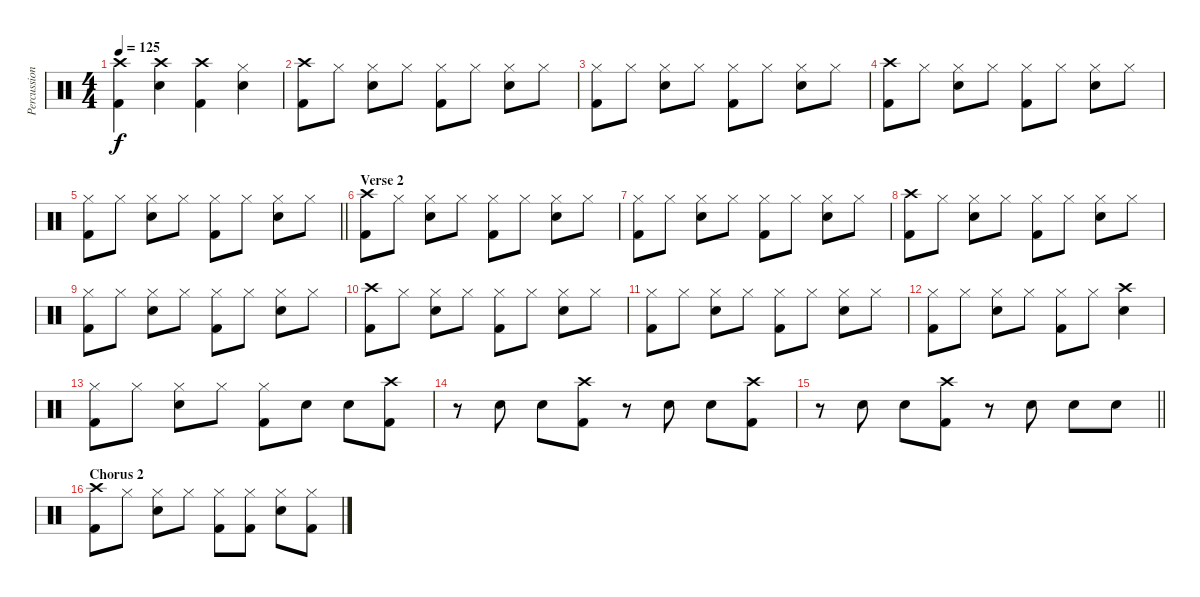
\track ("Percussions" "Percussion") {instrument percussion}
\staff {score}
\articulation defaults
\ts (4 4)
\tempo 125
\clef neutral
\ks c
("Crash high (hit)" "Kick (hit) 2").4{dy f} ("Crash high (hit)" "Snare (hit) 2").4 ("Crash high (hit)" "Kick (hit) 2").4 ("Hi-Hat (closed)" "Snare (hit) 2").4 |
("Crash high (hit)" "Kick (hit) 2").8 "Hi-Hat (closed)".8 ("Hi-Hat (closed)" "Snare (hit) 2").8 "Hi-Hat (closed)".8 ("Hi-Hat (closed)" "Kick (hit) 2").8 "Hi-Hat (closed)".8 ("Hi-Hat (closed)" "Snare (hit) 2").8 "Hi-Hat (closed)".8 |
("Hi-Hat (closed)" "Kick (hit) 2").8 "Hi-Hat (closed)".8 ("Hi-Hat (closed)" "Snare (hit) 2").8 "Hi-Hat (closed)".8 ("Hi-Hat (closed)" "Kick (hit) 2").8 "Hi-Hat (closed)".8 ("Hi-Hat (closed)" "Snare (hit) 2").8 "Hi-Hat (closed)".8 |
("Crash high (hit)" "Kick (hit) 2").8 "Hi-Hat (closed)".8 ("Hi-Hat (closed)" "Snare (hit) 2").8 "Hi-Hat (closed)".8 ("Hi-Hat (closed)" "Kick (hit) 2").8 "Hi-Hat (closed)".8 ("Hi-Hat (closed)" "Snare (hit) 2").8 "Hi-Hat (closed)".8 |
\barLineRight lightlight
("Hi-Hat (closed)" "Kick (hit) 2").8 "Hi-Hat (closed)".8 ("Hi-Hat (closed)" "Snare (hit) 2").8 "Hi-Hat (closed)".8 ("Hi-Hat (closed)" "Kick (hit) 2").8 "Hi-Hat (closed)".8 ("Hi-Hat (closed)" "Snare (hit) 2").8 "Hi-Hat (closed)".8 |
\section ("" "Verse 2")
("Crash high (hit)" "Kick (hit) 2").8 "Hi-Hat (closed)".8 ("Hi-Hat (closed)" "Snare (hit) 2").8 "Hi-Hat (closed)".8 ("Hi-Hat (closed)" "Kick (hit) 2").8 "Hi-Hat (closed)".8 ("Hi-Hat (closed)" "Snare (hit) 2").8 "Hi-Hat (closed)".8 |
("Hi-Hat (closed)" "Kick (hit) 2").8 "Hi-Hat (closed)".8 ("Hi-Hat (closed)" "Snare (hit) 2").8 "Hi-Hat (closed)".8 ("Hi-Hat (closed)" "Kick (hit) 2").8 "Hi-Hat (closed)".8 ("Hi-Hat (closed)" "Snare (hit) 2").8 "Hi-Hat (closed)".8 |
("Crash high (hit)" "Kick (hit) 2").8 "Hi-Hat (closed)".8 ("Hi-Hat (closed)" "Snare (hit) 2").8 "Hi-Hat (closed)".8 ("Hi-Hat (closed)" "Kick (hit) 2").8 "Hi-Hat (closed)".8 ("Hi-Hat (closed)" "Snare (hit) 2").8 "Hi-Hat (closed)".8 |
("Hi-Hat (closed)" "Kick (hit) 2").8 "Hi-Hat (closed)".8 ("Hi-Hat (closed)" "Snare (hit) 2").8 "Hi-Hat (closed)".8 ("Hi-Hat (closed)" "Kick (hit) 2").8 "Hi-Hat (closed)".8 ("Hi-Hat (closed)" "Snare (hit) 2").8 "Hi-Hat (closed)".8 |
("Crash high (hit)" "Kick (hit) 2").8 "Hi-Hat (closed)".8 ("Hi-Hat (closed)" "Snare (hit) 2").8 "Hi-Hat (closed)".8 ("Hi-Hat (closed)" "Kick (hit) 2").8 "Hi-Hat (closed)".8 ("Hi-Hat (closed)" "Snare (hit) 2").8 "Hi-Hat (closed)".8 |
("Hi-Hat (closed)" "Kick (hit) 2").8 "Hi-Hat (closed)".8 ("Hi-Hat (closed)" "Snare (hit) 2").8 "Hi-Hat (closed)".8 ("Hi-Hat (closed)" "Kick (hit) 2").8 "Hi-Hat (closed)".8 ("Hi-Hat (closed)" "Snare (hit) 2").8 "Hi-Hat (closed)".8 |
("Hi-Hat (closed)" "Kick (hit) 2").8 "Hi-Hat (closed)".8 ("Hi-Hat (closed)" "Snare (hit) 2").8 "Hi-Hat (closed)".8 ("Hi-Hat (closed)" "Kick (hit) 2").8 "Hi-Hat (closed)".8 ("Crash high (hit)" "Snare (hit) 2").4 |
("Hi-Hat (closed)" "Kick (hit) 2").8 "Hi-Hat (closed)".8 ("Hi-Hat (closed)" "Snare (hit) 2").8 "Hi-Hat (closed)".8 ("Hi-Hat (closed)" "Kick (hit) 2").8 "Snare (hit) 2".8 "Snare (hit) 2".8 ("Crash high (hit)" "Kick (hit) 2").8 |
r.8 "Snare (hit) 2".8 "Snare (hit) 2".8 ("Crash high (hit)" "Kick (hit) 2").8 r.8 "Snare (hit) 2".8 "Snare (hit) 2".8 ("Crash high (hit)" "Kick (hit) 2").8 |
\barLineRight lightlight
r.8 "Snare (hit) 2".8 "Snare (hit) 2".8 ("Crash high (hit)" "Kick (hit) 2").8 r.8 "Snare (hit) 2".8 "Snare (hit) 2".8 "Snare (hit) 2".8 |
\section ("" "Chorus 2")
("Crash high (hit)" "Kick (hit) 2").8 "Hi-Hat (closed)".8 ("Hi-Hat (closed)" "Snare (hit) 2").8 "Hi-Hat (closed)".8 ("Hi-Hat (closed)" "Kick (hit) 2").8 ("Hi-Hat (closed)" "Kick (hit) 2").8 ("Hi-Hat (closed)" "Snare (hit) 2").8 ("Hi-Hat (closed)" "Kick (hit) 2").8
